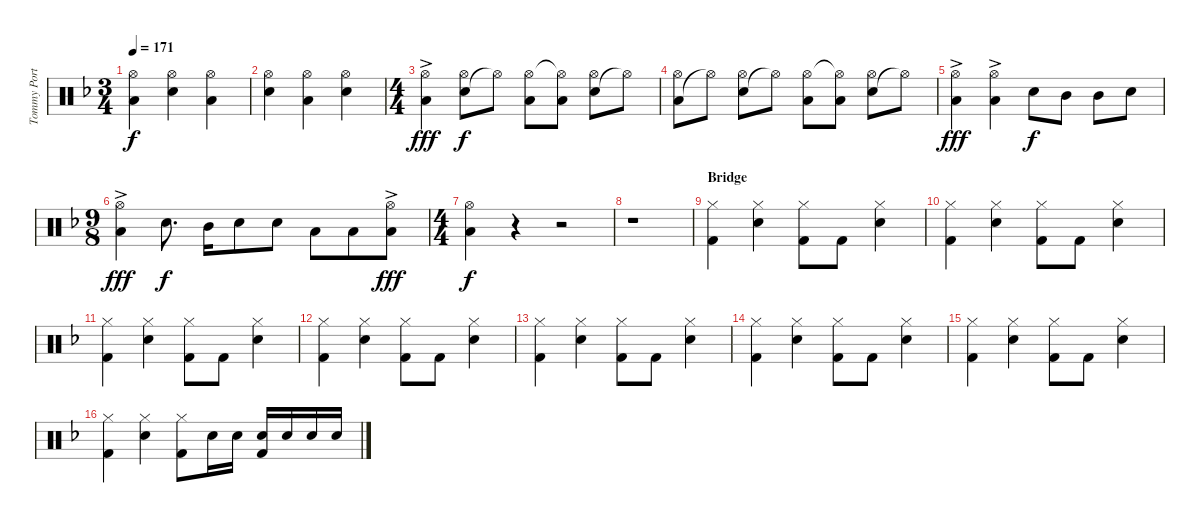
\track ("Tommy Portino" "Tommy Port") {instrument percussion}
\staff {score}
\articulation defaults
\ts (3 4)
\tempo 171
\clef neutral
\ks dminor
("Low Floor Tom (hit)" "Hi-Hat (open)").4{dy f} ("Electric Snare (hit)" "Hi-Hat (open)").4 ("Low Floor Tom (hit)" "Hi-Hat (open)").4 |
("Electric Snare (hit)" "Hi-Hat (open)").4 ("Low Floor Tom (hit)" "Hi-Hat (open)").4 ("Electric Snare (hit)" "Hi-Hat (open)").4 |
\ts (4 4)
("Low Floor Tom (hit)"{ac} "Hi-Hat (open)").4{dy fff} ("Electric Snare (hit)" "Hi-Hat (open)").8{dy f} "Hi-Hat (open)"{t}.8 ("Low Floor Tom (hit)" "Hi-Hat (open)").8 ("Low Floor Tom (hit)" "Hi-Hat (open)"{t}).8 ("Electric Snare (hit)" "Hi-Hat (open)").8 "Hi-Hat (open)"{t}.8 |
("Low Floor Tom (hit)" "Hi-Hat (open)").8 "Hi-Hat (open)"{t}.8 ("Electric Snare (hit)" "Hi-Hat (open)").8 "Hi-Hat (open)"{t}.8 ("Low Floor Tom (hit)" "Hi-Hat (open)").8 ("Low Floor Tom (hit)" "Hi-Hat (open)"{t}).8 ("Electric Snare (hit)" "Hi-Hat (open)").8 "Hi-Hat (open)"{t}.8 |
("Low Floor Tom (hit)"{ac} "Hi-Hat (open)").4{dy fff} ("Low Floor Tom (hit)"{ac} "Hi-Hat (open)").4 "Electric Snare (hit)".8{dy f} "Mid Tom (hit)".8 "Mid Tom (hit)".8 "Electric Snare (hit)".8 |
\ts (9 8)
("Low Floor Tom (hit)" "Hi-Hat (open)"{ac}).4{dy fff} "Electric Snare (hit)".8{d dy f} "Mid Tom (hit)".16 "Electric Snare (hit)".8 "Electric Snare (hit)".8 "Low Tom (hit)".8 "Low Tom (hit)".8 ("Low Floor Tom (hit)"{ac} "Hi-Hat (open)").8{dy fff} |
\ts (4 4)
("Low Floor Tom (hit)" "Hi-Hat (open)").4{dy f} r.4 r.2 |
r.1 |
\section ("" "Bridge")
("Kick (hit) 2" "Hi-Hat (closed)").4 ("Electric Snare (hit)" "Hi-Hat (closed)").4 ("Kick (hit) 2" "Hi-Hat (closed)").8 "Kick (hit) 2".8 ("Electric Snare (hit)" "Hi-Hat (closed)").4 |
("Kick (hit) 2" "Hi-Hat (closed)").4 ("Electric Snare (hit)" "Hi-Hat (closed)").4 ("Kick (hit) 2" "Hi-Hat (closed)").8 "Kick (hit) 2".8 ("Electric Snare (hit)" "Hi-Hat (closed)").4 |
("Kick (hit) 2" "Hi-Hat (closed)").4 ("Electric Snare (hit)" "Hi-Hat (closed)").4 ("Kick (hit) 2" "Hi-Hat (closed)").8 "Kick (hit) 2".8 ("Electric Snare (hit)" "Hi-Hat (closed)").4 |
("Kick (hit) 2" "Hi-Hat (closed)").4 ("Electric Snare (hit)" "Hi-Hat (closed)").4 ("Kick (hit) 2" "Hi-Hat (closed)").8 "Kick (hit) 2".8 ("Electric Snare (hit)" "Hi-Hat (closed)").4 |
("Kick (hit) 2" "Hi-Hat (closed)").4 ("Electric Snare (hit)" "Hi-Hat (closed)").4 ("Kick (hit) 2" "Hi-Hat (closed)").8 "Kick (hit) 2".8 ("Electric Snare (hit)" "Hi-Hat (closed)").4 |
("Kick (hit) 2" "Hi-Hat (closed)").4 ("Electric Snare (hit)" "Hi-Hat (closed)").4 ("Kick (hit) 2" "Hi-Hat (closed)").8 "Kick (hit) 2".8 ("Electric Snare (hit)" "Hi-Hat (closed)").4 |
("Kick (hit) 2" "Hi-Hat (closed)").4 ("Electric Snare (hit)" "Hi-Hat (closed)").4 ("Kick (hit) 2" "Hi-Hat (closed)").8 "Kick (hit) 2".8 ("Electric Snare (hit)" "Hi-Hat (closed)").4 |
("Kick (hit) 2" "Hi-Hat (closed)").4 ("Electric Snare (hit)" "Hi-Hat (closed)").4 ("Kick (hit) 2" "Hi-Hat (closed)").8 "Electric Snare (hit)".16 "Electric Snare (hit)".16 ("Kick (hit) 2" "Electric Snare (hit)").16 "Electric Snare (hit)".16 "Electric Snare (hit)".16 "Electric Snare (hit)".16
